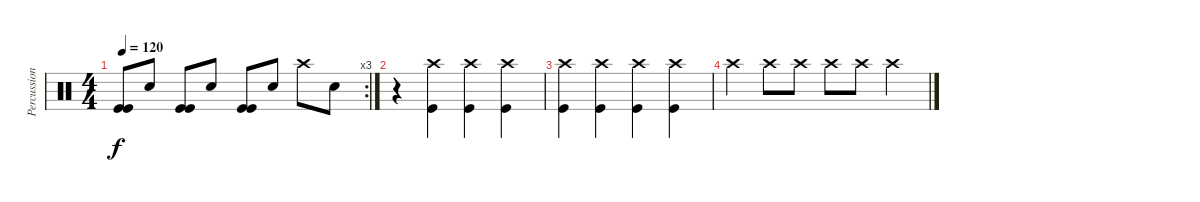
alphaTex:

\track ("Percussion" "Percussion") {instrument percussion}
\staff {score}
\articulation defaults
\rc 3
\ts (4 4)
\tempo 120
\clef neutral
\ks c
("Kick (hit)" "Kick (hit)").8{dy f} "Snare (hit) 2".8 ("Kick (hit)" "Kick (hit)").8 "Snare (hit) 2".8 ("Kick (hit)" "Kick (hit)").8 "Snare (hit) 2".8 "Crash high (hit)".8 "Snare (hit) 2".8 |
r.4 ("Kick (hit)" "Crash high (hit)").4 ("Kick (hit)" "Crash high (hit)").4 ("Kick (hit)" "Crash high (hit)").4 |
("Kick (hit)" "Crash high (hit)").4 ("Kick (hit)" "Crash high (hit)").4 ("Kick (hit)" "Crash high (hit)").4 ("Kick (hit)" "Crash high (hit)").4 |
"Crash high (hit)".4 "Crash high (hit)".8 "Crash high (hit)".8 "Crash high (hit)".8 "Crash high (hit)".8 "Crash high (hit)".4
